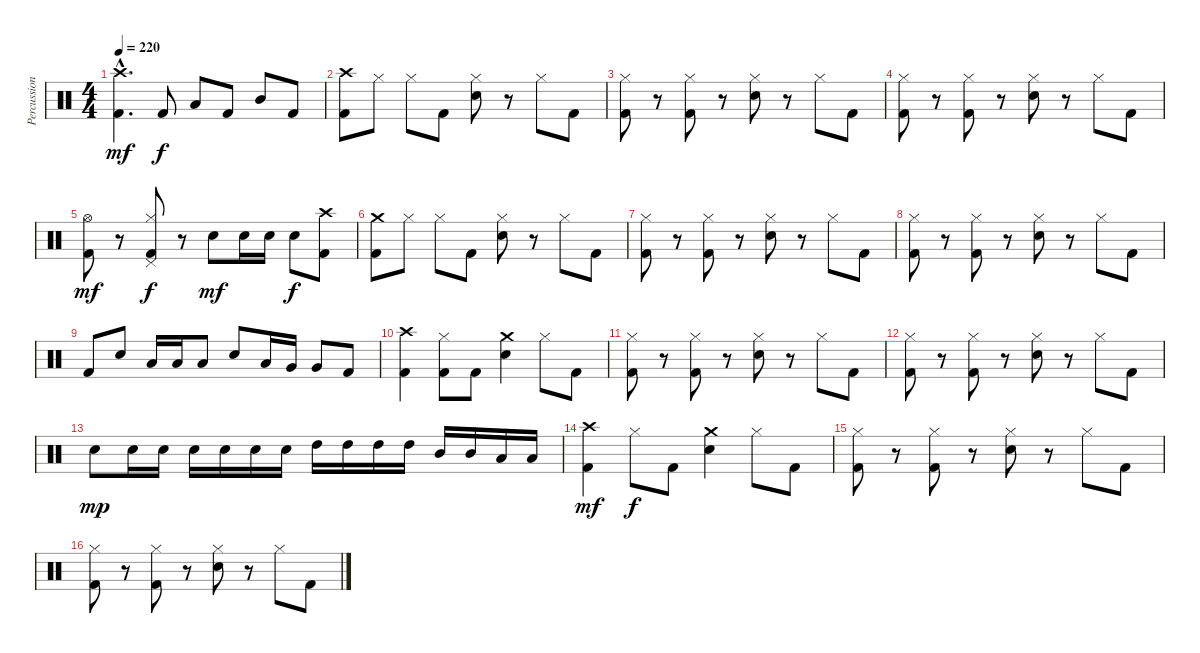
\track ("Percussion" "Percussion") {instrument percussion}
\staff {score}
\articulation defaults
\ts (4 4)
\tempo 220
\clef neutral
\ks c
("Crash high (hit)"{hac} "Kick (hit) 2"{hac}).4{d dy mf} "Kick (hit) 2".8{dy f} "Low Tom (hit)".8 "Kick (hit) 2".8 "Mid Tom (hit)".8 "Kick (hit) 2".8 |
("Crash high (hit)" "Kick (hit) 2").8 "Hi-Hat (closed)".8 "Hi-Hat (closed)".8 "Kick (hit) 2".8 ("Hi-Hat (closed)" "Electric Snare (hit)").8 r.8 "Hi-Hat (closed)".8 "Kick (hit) 2".8 |
("Hi-Hat (closed)" "Kick (hit) 2").8 r.8 ("Hi-Hat (closed)" "Kick (hit) 2").8 r.8 ("Hi-Hat (closed)" "Electric Snare (hit)").8 r.8 "Hi-Hat (closed)".8 "Kick (hit) 2".8 |
("Hi-Hat (closed)" "Kick (hit) 2").8 r.8 ("Hi-Hat (closed)" "Kick (hit) 2").8 r.8 ("Hi-Hat (closed)" "Electric Snare (hit)").8 r.8 "Hi-Hat (closed)".8 "Kick (hit) 2".8 |
("Hi-Hat (open)" "Kick (hit) 2").8{dy mf} r.8 ("Hi-Hat (closed)" "Pedal Hi-Hat (hit)" "Kick (hit) 2").8{dy f} r.8 "Electric Snare (hit)".8{dy mf} "Electric Snare (hit)".16 "Electric Snare (hit)".16 "Electric Snare (hit)".8{dy f} ("Crash high (hit)" "Kick (hit) 2").8 |
("Crash medium (hit)" "Kick (hit) 2").8 "Hi-Hat (closed)".8 "Hi-Hat (closed)".8 "Kick (hit) 2".8 ("Hi-Hat (closed)" "Electric Snare (hit)").8 r.8 "Hi-Hat (closed)".8 "Kick (hit) 2".8 |
("Hi-Hat (closed)" "Kick (hit) 2").8 r.8 ("Hi-Hat (closed)" "Kick (hit) 2").8 r.8 ("Hi-Hat (closed)" "Electric Snare (hit)").8 r.8 "Hi-Hat (closed)".8 "Kick (hit) 2".8 |
("Hi-Hat (closed)" "Kick (hit) 2").8 r.8 ("Hi-Hat (closed)" "Kick (hit) 2").8 r.8 ("Hi-Hat (closed)" "Electric Snare (hit)").8 r.8 "Hi-Hat (closed)".8 "Kick (hit) 2".8 |
"Kick (hit) 2".8 "Electric Snare (hit)".8 "Low Tom (hit)".16 "Low Tom (hit)".16 "Low Tom (hit)".8 "Electric Snare (hit)".8 "Low Tom (hit)".16 "Very Low Tom (hit)".16 "Very Low Tom (hit)".8 "Kick (hit) 2".8 |
("Crash high (hit)" "Kick (hit) 2").4 ("Hi-Hat (closed)" "Kick (hit) 2").8 "Kick (hit) 2".8 ("Crash medium (hit)" "Electric Snare (hit)").4 "Hi-Hat (closed)".8 "Kick (hit) 2".8 |
("Hi-Hat (closed)" "Kick (hit) 2").8 r.8 ("Hi-Hat (closed)" "Kick (hit) 2").8 r.8 ("Hi-Hat (closed)" "Electric Snare (hit)").8 r.8 "Hi-Hat (closed)".8 "Kick (hit) 2".8 |
("Hi-Hat (closed)" "Kick (hit) 2").8 r.8 ("Hi-Hat (closed)" "Kick (hit) 2").8 r.8 ("Hi-Hat (closed)" "Electric Snare (hit)").8 r.8 "Hi-Hat (closed)".8 "Kick (hit) 2".8 |
"Electric Snare (hit)".8{dy mp} "Electric Snare (hit)".16 "Electric Snare (hit)".16 "Electric Snare (hit)".16 "Electric Snare (hit)".16 "Electric Snare (hit)".16 "Electric Snare (hit)".16 "High Tom (hit)".16 "High Tom (hit)".16 "High Tom (hit)".16 "High Tom (hit)".16 "Mid Tom (hit)".16 "Mid Tom (hit)".16 "Low Tom (hit)".16 "Low Tom (hit)".16 |
("Crash high (hit)" "Kick (hit) 2").4{dy mf} "Hi-Hat (closed)".8{dy f} "Kick (hit) 2".8 ("Crash medium (hit)" "Electric Snare (hit)").4 "Hi-Hat (closed)".8 "Kick (hit) 2".8 |
("Hi-Hat (closed)" "Kick (hit) 2").8 r.8 ("Hi-Hat (closed)" "Kick (hit) 2").8 r.8 ("Hi-Hat (closed)" "Electric Snare (hit)").8 r.8 "Hi-Hat (closed)".8 "Kick (hit) 2".8 |
("Hi-Hat (closed)" "Kick (hit) 2").8 r.8 ("Hi-Hat (closed)" "Kick (hit) 2").8 r.8 ("Hi-Hat (closed)" "Electric Snare (hit)").8 r.8 "Hi-Hat (closed)".8 "Kick (hit) 2".8
